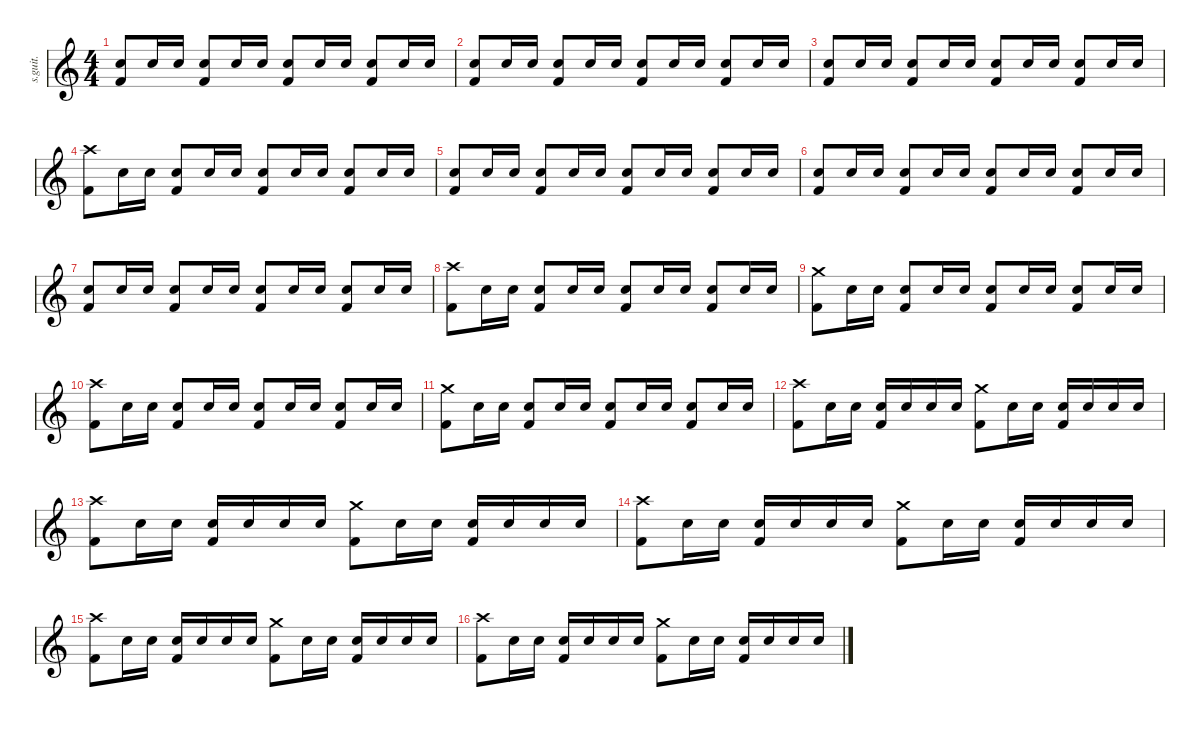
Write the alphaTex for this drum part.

\defaultSystemsLayout 4
\hideDynamics
\bracketExtendMode nobrackets
\track ("Bob Burns (Drums)" "s.guit.") {instrument percussion}
\staff {score}
\articulation defaults
\ts (4 4)
\tempo (150 hide)
\clef g2
\ks c
("Electric Snare (hit)" "Kick (hit) 2").8{lyrics (0 "") lyrics (1 "") lyrics (2 "") lyrics (3 "") lyrics (4 "") dy f} "Electric Snare (hit)".16{lyrics (0 "") lyrics (1 "") lyrics (2 "") lyrics (3 "") lyrics (4 "")} "Electric Snare (hit)".16{lyrics (0 "") lyrics (1 "") lyrics (2 "") lyrics (3 "") lyrics (4 "")} ("Electric Snare (hit)" "Kick (hit) 2").8{lyrics (0 "") lyrics (1 "") lyrics (2 "") lyrics (3 "") lyrics (4 "")} "Electric Snare (hit)".16{lyrics (0 "") lyrics (1 "") lyrics (2 "") lyrics (3 "") lyrics (4 "")} "Electric Snare (hit)".16{lyrics (0 "") lyrics (1 "") lyrics (2 "") lyrics (3 "") lyrics (4 "")} ("Electric Snare (hit)" "Kick (hit) 2").8{lyrics (0 "") lyrics (1 "") lyrics (2 "") lyrics (3 "") lyrics (4 "")} "Electric Snare (hit)".16{lyrics (0 "") lyrics (1 "") lyrics (2 "") lyrics (3 "") lyrics (4 "")} "Electric Snare (hit)".16{lyrics (0 "") lyrics (1 "") lyrics (2 "") lyrics (3 "") lyrics (4 "")} ("Electric Snare (hit)" "Kick (hit) 2").8{lyrics (0 "") lyrics (1 "") lyrics (2 "") lyrics (3 "") lyrics (4 "")} "Electric Snare (hit)".16{lyrics (0 "") lyrics (1 "") lyrics (2 "") lyrics (3 "") lyrics (4 "")} "Electric Snare (hit)".16{lyrics (0 "") lyrics (1 "") lyrics (2 "") lyrics (3 "") lyrics (4 "")} |
("Electric Snare (hit)" "Kick (hit) 2").8{lyrics (0 "") lyrics (1 "") lyrics (2 "") lyrics (3 "") lyrics (4 "")} "Electric Snare (hit)".16{lyrics (0 "") lyrics (1 "") lyrics (2 "") lyrics (3 "") lyrics (4 "")} "Electric Snare (hit)".16{lyrics (0 "") lyrics (1 "") lyrics (2 "") lyrics (3 "") lyrics (4 "")} ("Electric Snare (hit)" "Kick (hit) 2").8{lyrics (0 "") lyrics (1 "") lyrics (2 "") lyrics (3 "") lyrics (4 "")} "Electric Snare (hit)".16{lyrics (0 "") lyrics (1 "") lyrics (2 "") lyrics (3 "") lyrics (4 "")} "Electric Snare (hit)".16{lyrics (0 "") lyrics (1 "") lyrics (2 "") lyrics (3 "") lyrics (4 "")} ("Electric Snare (hit)" "Kick (hit) 2").8{lyrics (0 "") lyrics (1 "") lyrics (2 "") lyrics (3 "") lyrics (4 "")} "Electric Snare (hit)".16{lyrics (0 "") lyrics (1 "") lyrics (2 "") lyrics (3 "") lyrics (4 "")} "Electric Snare (hit)".16{lyrics (0 "") lyrics (1 "") lyrics (2 "") lyrics (3 "") lyrics (4 "")} ("Electric Snare (hit)" "Kick (hit) 2").8{lyrics (0 "") lyrics (1 "") lyrics (2 "") lyrics (3 "") lyrics (4 "")} "Electric Snare (hit)".16{lyrics (0 "") lyrics (1 "") lyrics (2 "") lyrics (3 "") lyrics (4 "")} "Electric Snare (hit)".16{lyrics (0 "") lyrics (1 "") lyrics (2 "") lyrics (3 "") lyrics (4 "")} |
("Electric Snare (hit)" "Kick (hit) 2").8{lyrics (0 "") lyrics (1 "") lyrics (2 "") lyrics (3 "") lyrics (4 "")} "Electric Snare (hit)".16{lyrics (0 "") lyrics (1 "") lyrics (2 "") lyrics (3 "") lyrics (4 "")} "Electric Snare (hit)".16{lyrics (0 "") lyrics (1 "") lyrics (2 "") lyrics (3 "") lyrics (4 "")} ("Electric Snare (hit)" "Kick (hit) 2").8{lyrics (0 "") lyrics (1 "") lyrics (2 "") lyrics (3 "") lyrics (4 "")} "Electric Snare (hit)".16{lyrics (0 "") lyrics (1 "") lyrics (2 "") lyrics (3 "") lyrics (4 "")} "Electric Snare (hit)".16{lyrics (0 "") lyrics (1 "") lyrics (2 "") lyrics (3 "") lyrics (4 "")} ("Electric Snare (hit)" "Kick (hit) 2").8{lyrics (0 "") lyrics (1 "") lyrics (2 "") lyrics (3 "") lyrics (4 "")} "Electric Snare (hit)".16{lyrics (0 "") lyrics (1 "") lyrics (2 "") lyrics (3 "") lyrics (4 "")} "Electric Snare (hit)".16{lyrics (0 "") lyrics (1 "") lyrics (2 "") lyrics (3 "") lyrics (4 "")} ("Electric Snare (hit)" "Kick (hit) 2").8{lyrics (0 "") lyrics (1 "") lyrics (2 "") lyrics (3 "") lyrics (4 "")} "Electric Snare (hit)".16{lyrics (0 "") lyrics (1 "") lyrics (2 "") lyrics (3 "") lyrics (4 "")} "Electric Snare (hit)".16{lyrics (0 "") lyrics (1 "") lyrics (2 "") lyrics (3 "") lyrics (4 "")} |
("Crash high (hit)" "Kick (hit) 2").8{lyrics (0 "") lyrics (1 "") lyrics (2 "") lyrics (3 "") lyrics (4 "")} "Electric Snare (hit)".16{lyrics (0 "") lyrics (1 "") lyrics (2 "") lyrics (3 "") lyrics (4 "")} "Electric Snare (hit)".16{lyrics (0 "") lyrics (1 "") lyrics (2 "") lyrics (3 "") lyrics (4 "")} ("Electric Snare (hit)" "Kick (hit) 2").8{lyrics (0 "") lyrics (1 "") lyrics (2 "") lyrics (3 "") lyrics (4 "")} "Electric Snare (hit)".16{lyrics (0 "") lyrics (1 "") lyrics (2 "") lyrics (3 "") lyrics (4 "")} "Electric Snare (hit)".16{lyrics (0 "") lyrics (1 "") lyrics (2 "") lyrics (3 "") lyrics (4 "")} ("Electric Snare (hit)" "Kick (hit) 2").8{lyrics (0 "") lyrics (1 "") lyrics (2 "") lyrics (3 "") lyrics (4 "")} "Electric Snare (hit)".16{lyrics (0 "") lyrics (1 "") lyrics (2 "") lyrics (3 "") lyrics (4 "")} "Electric Snare (hit)".16{lyrics (0 "") lyrics (1 "") lyrics (2 "") lyrics (3 "") lyrics (4 "")} ("Electric Snare (hit)" "Kick (hit) 2").8{lyrics (0 "") lyrics (1 "") lyrics (2 "") lyrics (3 "") lyrics (4 "")} "Electric Snare (hit)".16{lyrics (0 "") lyrics (1 "") lyrics (2 "") lyrics (3 "") lyrics (4 "")} "Electric Snare (hit)".16{lyrics (0 "") lyrics (1 "") lyrics (2 "") lyrics (3 "") lyrics (4 "")} |
("Electric Snare (hit)" "Kick (hit) 2").8{lyrics (0 "") lyrics (1 "") lyrics (2 "") lyrics (3 "") lyrics (4 "")} "Electric Snare (hit)".16{lyrics (0 "") lyrics (1 "") lyrics (2 "") lyrics (3 "") lyrics (4 "")} "Electric Snare (hit)".16{lyrics (0 "") lyrics (1 "") lyrics (2 "") lyrics (3 "") lyrics (4 "")} ("Electric Snare (hit)" "Kick (hit) 2").8{lyrics (0 "") lyrics (1 "") lyrics (2 "") lyrics (3 "") lyrics (4 "")} "Electric Snare (hit)".16{lyrics (0 "") lyrics (1 "") lyrics (2 "") lyrics (3 "") lyrics (4 "")} "Electric Snare (hit)".16{lyrics (0 "") lyrics (1 "") lyrics (2 "") lyrics (3 "") lyrics (4 "")} ("Electric Snare (hit)" "Kick (hit) 2").8{lyrics (0 "") lyrics (1 "") lyrics (2 "") lyrics (3 "") lyrics (4 "")} "Electric Snare (hit)".16{lyrics (0 "") lyrics (1 "") lyrics (2 "") lyrics (3 "") lyrics (4 "")} "Electric Snare (hit)".16{lyrics (0 "") lyrics (1 "") lyrics (2 "") lyrics (3 "") lyrics (4 "")} ("Electric Snare (hit)" "Kick (hit) 2").8{lyrics (0 "") lyrics (1 "") lyrics (2 "") lyrics (3 "") lyrics (4 "")} "Electric Snare (hit)".16{lyrics (0 "") lyrics (1 "") lyrics (2 "") lyrics (3 "") lyrics (4 "")} "Electric Snare (hit)".16{lyrics (0 "") lyrics (1 "") lyrics (2 "") lyrics (3 "") lyrics (4 "")} |
("Electric Snare (hit)" "Kick (hit) 2").8{lyrics (0 "") lyrics (1 "") lyrics (2 "") lyrics (3 "") lyrics (4 "")} "Electric Snare (hit)".16{lyrics (0 "") lyrics (1 "") lyrics (2 "") lyrics (3 "") lyrics (4 "")} "Electric Snare (hit)".16{lyrics (0 "") lyrics (1 "") lyrics (2 "") lyrics (3 "") lyrics (4 "")} ("Electric Snare (hit)" "Kick (hit) 2").8{lyrics (0 "") lyrics (1 "") lyrics (2 "") lyrics (3 "") lyrics (4 "")} "Electric Snare (hit)".16{lyrics (0 "") lyrics (1 "") lyrics (2 "") lyrics (3 "") lyrics (4 "")} "Electric Snare (hit)".16{lyrics (0 "") lyrics (1 "") lyrics (2 "") lyrics (3 "") lyrics (4 "")} ("Electric Snare (hit)" "Kick (hit) 2").8{lyrics (0 "") lyrics (1 "") lyrics (2 "") lyrics (3 "") lyrics (4 "")} "Electric Snare (hit)".16{lyrics (0 "") lyrics (1 "") lyrics (2 "") lyrics (3 "") lyrics (4 "")} "Electric Snare (hit)".16{lyrics (0 "") lyrics (1 "") lyrics (2 "") lyrics (3 "") lyrics (4 "")} ("Electric Snare (hit)" "Kick (hit) 2").8{lyrics (0 "") lyrics (1 "") lyrics (2 "") lyrics (3 "") lyrics (4 "")} "Electric Snare (hit)".16{lyrics (0 "") lyrics (1 "") lyrics (2 "") lyrics (3 "") lyrics (4 "")} "Electric Snare (hit)".16{lyrics (0 "") lyrics (1 "") lyrics (2 "") lyrics (3 "") lyrics (4 "")} |
("Electric Snare (hit)" "Kick (hit) 2").8{lyrics (0 "") lyrics (1 "") lyrics (2 "") lyrics (3 "") lyrics (4 "")} "Electric Snare (hit)".16{lyrics (0 "") lyrics (1 "") lyrics (2 "") lyrics (3 "") lyrics (4 "")} "Electric Snare (hit)".16{lyrics (0 "") lyrics (1 "") lyrics (2 "") lyrics (3 "") lyrics (4 "")} ("Electric Snare (hit)" "Kick (hit) 2").8{lyrics (0 "") lyrics (1 "") lyrics (2 "") lyrics (3 "") lyrics (4 "")} "Electric Snare (hit)".16{lyrics (0 "") lyrics (1 "") lyrics (2 "") lyrics (3 "") lyrics (4 "")} "Electric Snare (hit)".16{lyrics (0 "") lyrics (1 "") lyrics (2 "") lyrics (3 "") lyrics (4 "")} ("Electric Snare (hit)" "Kick (hit) 2").8{lyrics (0 "") lyrics (1 "") lyrics (2 "") lyrics (3 "") lyrics (4 "")} "Electric Snare (hit)".16{lyrics (0 "") lyrics (1 "") lyrics (2 "") lyrics (3 "") lyrics (4 "")} "Electric Snare (hit)".16{lyrics (0 "") lyrics (1 "") lyrics (2 "") lyrics (3 "") lyrics (4 "")} ("Electric Snare (hit)" "Kick (hit) 2").8{lyrics (0 "") lyrics (1 "") lyrics (2 "") lyrics (3 "") lyrics (4 "")} "Electric Snare (hit)".16{lyrics (0 "") lyrics (1 "") lyrics (2 "") lyrics (3 "") lyrics (4 "")} "Electric Snare (hit)".16{lyrics (0 "") lyrics (1 "") lyrics (2 "") lyrics (3 "") lyrics (4 "")} |
("Crash high (hit)" "Kick (hit) 2").8{lyrics (0 "") lyrics (1 "") lyrics (2 "") lyrics (3 "") lyrics (4 "")} "Electric Snare (hit)".16{lyrics (0 "") lyrics (1 "") lyrics (2 "") lyrics (3 "") lyrics (4 "")} "Electric Snare (hit)".16{lyrics (0 "") lyrics (1 "") lyrics (2 "") lyrics (3 "") lyrics (4 "")} ("Electric Snare (hit)" "Kick (hit) 2").8{lyrics (0 "") lyrics (1 "") lyrics (2 "") lyrics (3 "") lyrics (4 "")} "Electric Snare (hit)".16{lyrics (0 "") lyrics (1 "") lyrics (2 "") lyrics (3 "") lyrics (4 "")} "Electric Snare (hit)".16{lyrics (0 "") lyrics (1 "") lyrics (2 "") lyrics (3 "") lyrics (4 "")} ("Electric Snare (hit)" "Kick (hit) 2").8{lyrics (0 "") lyrics (1 "") lyrics (2 "") lyrics (3 "") lyrics (4 "")} "Electric Snare (hit)".16{lyrics (0 "") lyrics (1 "") lyrics (2 "") lyrics (3 "") lyrics (4 "")} "Electric Snare (hit)".16{lyrics (0 "") lyrics (1 "") lyrics (2 "") lyrics (3 "") lyrics (4 "")} ("Electric Snare (hit)" "Kick (hit) 2").8{lyrics (0 "") lyrics (1 "") lyrics (2 "") lyrics (3 "") lyrics (4 "")} "Electric Snare (hit)".16{lyrics (0 "") lyrics (1 "") lyrics (2 "") lyrics (3 "") lyrics (4 "")} "Electric Snare (hit)".16{lyrics (0 "") lyrics (1 "") lyrics (2 "") lyrics (3 "") lyrics (4 "")} |
("Crash medium (hit)" "Kick (hit) 2").8{lyrics (0 "") lyrics (1 "") lyrics (2 "") lyrics (3 "") lyrics (4 "")} "Electric Snare (hit)".16{lyrics (0 "") lyrics (1 "") lyrics (2 "") lyrics (3 "") lyrics (4 "")} "Electric Snare (hit)".16{lyrics (0 "") lyrics (1 "") lyrics (2 "") lyrics (3 "") lyrics (4 "")} ("Electric Snare (hit)" "Kick (hit) 2").8{lyrics (0 "") lyrics (1 "") lyrics (2 "") lyrics (3 "") lyrics (4 "")} "Electric Snare (hit)".16{lyrics (0 "") lyrics (1 "") lyrics (2 "") lyrics (3 "") lyrics (4 "")} "Electric Snare (hit)".16{lyrics (0 "") lyrics (1 "") lyrics (2 "") lyrics (3 "") lyrics (4 "")} ("Electric Snare (hit)" "Kick (hit) 2").8{lyrics (0 "") lyrics (1 "") lyrics (2 "") lyrics (3 "") lyrics (4 "")} "Electric Snare (hit)".16{lyrics (0 "") lyrics (1 "") lyrics (2 "") lyrics (3 "") lyrics (4 "")} "Electric Snare (hit)".16{lyrics (0 "") lyrics (1 "") lyrics (2 "") lyrics (3 "") lyrics (4 "")} ("Electric Snare (hit)" "Kick (hit) 2").8{lyrics (0 "") lyrics (1 "") lyrics (2 "") lyrics (3 "") lyrics (4 "")} "Electric Snare (hit)".16{lyrics (0 "") lyrics (1 "") lyrics (2 "") lyrics (3 "") lyrics (4 "")} "Electric Snare (hit)".16{lyrics (0 "") lyrics (1 "") lyrics (2 "") lyrics (3 "") lyrics (4 "")} |
("Crash high (hit)" "Kick (hit) 2").8{lyrics (0 "") lyrics (1 "") lyrics (2 "") lyrics (3 "") lyrics (4 "")} "Electric Snare (hit)".16{lyrics (0 "") lyrics (1 "") lyrics (2 "") lyrics (3 "") lyrics (4 "")} "Electric Snare (hit)".16{lyrics (0 "") lyrics (1 "") lyrics (2 "") lyrics (3 "") lyrics (4 "")} ("Electric Snare (hit)" "Kick (hit) 2").8{lyrics (0 "") lyrics (1 "") lyrics (2 "") lyrics (3 "") lyrics (4 "")} "Electric Snare (hit)".16{lyrics (0 "") lyrics (1 "") lyrics (2 "") lyrics (3 "") lyrics (4 "")} "Electric Snare (hit)".16{lyrics (0 "") lyrics (1 "") lyrics (2 "") lyrics (3 "") lyrics (4 "")} ("Electric Snare (hit)" "Kick (hit) 2").8{lyrics (0 "") lyrics (1 "") lyrics (2 "") lyrics (3 "") lyrics (4 "")} "Electric Snare (hit)".16{lyrics (0 "") lyrics (1 "") lyrics (2 "") lyrics (3 "") lyrics (4 "")} "Electric Snare (hit)".16{lyrics (0 "") lyrics (1 "") lyrics (2 "") lyrics (3 "") lyrics (4 "")} ("Electric Snare (hit)" "Kick (hit) 2").8{lyrics (0 "") lyrics (1 "") lyrics (2 "") lyrics (3 "") lyrics (4 "")} "Electric Snare (hit)".16{lyrics (0 "") lyrics (1 "") lyrics (2 "") lyrics (3 "") lyrics (4 "")} "Electric Snare (hit)".16{lyrics (0 "") lyrics (1 "") lyrics (2 "") lyrics (3 "") lyrics (4 "")} |
("Crash medium (hit)" "Kick (hit) 2").8{lyrics (0 "") lyrics (1 "") lyrics (2 "") lyrics (3 "") lyrics (4 "")} "Electric Snare (hit)".16{lyrics (0 "") lyrics (1 "") lyrics (2 "") lyrics (3 "") lyrics (4 "")} "Electric Snare (hit)".16{lyrics (0 "") lyrics (1 "") lyrics (2 "") lyrics (3 "") lyrics (4 "")} ("Electric Snare (hit)" "Kick (hit) 2").8{lyrics (0 "") lyrics (1 "") lyrics (2 "") lyrics (3 "") lyrics (4 "")} "Electric Snare (hit)".16{lyrics (0 "") lyrics (1 "") lyrics (2 "") lyrics (3 "") lyrics (4 "")} "Electric Snare (hit)".16{lyrics (0 "") lyrics (1 "") lyrics (2 "") lyrics (3 "") lyrics (4 "")} ("Electric Snare (hit)" "Kick (hit) 2").8{lyrics (0 "") lyrics (1 "") lyrics (2 "") lyrics (3 "") lyrics (4 "")} "Electric Snare (hit)".16{lyrics (0 "") lyrics (1 "") lyrics (2 "") lyrics (3 "") lyrics (4 "")} "Electric Snare (hit)".16{lyrics (0 "") lyrics (1 "") lyrics (2 "") lyrics (3 "") lyrics (4 "")} ("Electric Snare (hit)" "Kick (hit) 2").8{lyrics (0 "") lyrics (1 "") lyrics (2 "") lyrics (3 "") lyrics (4 "")} "Electric Snare (hit)".16{lyrics (0 "") lyrics (1 "") lyrics (2 "") lyrics (3 "") lyrics (4 "")} "Electric Snare (hit)".16{lyrics (0 "") lyrics (1 "") lyrics (2 "") lyrics (3 "") lyrics (4 "")} |
("Crash high (hit)" "Kick (hit) 2").8{lyrics (0 "") lyrics (1 "") lyrics (2 "") lyrics (3 "") lyrics (4 "")} "Electric Snare (hit)".16{lyrics (0 "") lyrics (1 "") lyrics (2 "") lyrics (3 "") lyrics (4 "")} "Electric Snare (hit)".16{lyrics (0 "") lyrics (1 "") lyrics (2 "") lyrics (3 "") lyrics (4 "")} ("Electric Snare (hit)" "Kick (hit) 2").16{lyrics (0 "") lyrics (1 "") lyrics (2 "") lyrics (3 "") lyrics (4 "")} "Electric Snare (hit)".16{lyrics (0 "") lyrics (1 "") lyrics (2 "") lyrics (3 "") lyrics (4 "")} "Electric Snare (hit)".16{lyrics (0 "") lyrics (1 "") lyrics (2 "") lyrics (3 "") lyrics (4 "")} "Electric Snare (hit)".16{lyrics (0 "") lyrics (1 "") lyrics (2 "") lyrics (3 "") lyrics (4 "")} ("Crash medium (hit)" "Kick (hit) 2").8{lyrics (0 "") lyrics (1 "") lyrics (2 "") lyrics (3 "") lyrics (4 "")} "Electric Snare (hit)".16{lyrics (0 "") lyrics (1 "") lyrics (2 "") lyrics (3 "") lyrics (4 "")} "Electric Snare (hit)".16{lyrics (0 "") lyrics (1 "") lyrics (2 "") lyrics (3 "") lyrics (4 "")} ("Electric Snare (hit)" "Kick (hit) 2").16{lyrics (0 "") lyrics (1 "") lyrics (2 "") lyrics (3 "") lyrics (4 "")} "Electric Snare (hit)".16{lyrics (0 "") lyrics (1 "") lyrics (2 "") lyrics (3 "") lyrics (4 "")} "Electric Snare (hit)".16{lyrics (0 "") lyrics (1 "") lyrics (2 "") lyrics (3 "") lyrics (4 "")} "Electric Snare (hit)".16{lyrics (0 "") lyrics (1 "") lyrics (2 "") lyrics (3 "") lyrics (4 "")} |
("Crash high (hit)" "Kick (hit) 2").8{lyrics (0 "") lyrics (1 "") lyrics (2 "") lyrics (3 "") lyrics (4 "")} "Electric Snare (hit)".16{lyrics (0 "") lyrics (1 "") lyrics (2 "") lyrics (3 "") lyrics (4 "")} "Electric Snare (hit)".16{lyrics (0 "") lyrics (1 "") lyrics (2 "") lyrics (3 "") lyrics (4 "")} ("Electric Snare (hit)" "Kick (hit) 2").16{lyrics (0 "") lyrics (1 "") lyrics (2 "") lyrics (3 "") lyrics (4 "")} "Electric Snare (hit)".16{lyrics (0 "") lyrics (1 "") lyrics (2 "") lyrics (3 "") lyrics (4 "")} "Electric Snare (hit)".16{lyrics (0 "") lyrics (1 "") lyrics (2 "") lyrics (3 "") lyrics (4 "")} "Electric Snare (hit)".16{lyrics (0 "") lyrics (1 "") lyrics (2 "") lyrics (3 "") lyrics (4 "")} ("Crash medium (hit)" "Kick (hit) 2").8{lyrics (0 "") lyrics (1 "") lyrics (2 "") lyrics (3 "") lyrics (4 "")} "Electric Snare (hit)".16{lyrics (0 "") lyrics (1 "") lyrics (2 "") lyrics (3 "") lyrics (4 "")} "Electric Snare (hit)".16{lyrics (0 "") lyrics (1 "") lyrics (2 "") lyrics (3 "") lyrics (4 "")} ("Electric Snare (hit)" "Kick (hit) 2").16{lyrics (0 "") lyrics (1 "") lyrics (2 "") lyrics (3 "") lyrics (4 "")} "Electric Snare (hit)".16{lyrics (0 "") lyrics (1 "") lyrics (2 "") lyrics (3 "") lyrics (4 "")} "Electric Snare (hit)".16{lyrics (0 "") lyrics (1 "") lyrics (2 "") lyrics (3 "") lyrics (4 "")} "Electric Snare (hit)".16{lyrics (0 "") lyrics (1 "") lyrics (2 "") lyrics (3 "") lyrics (4 "")} |
("Crash high (hit)" "Kick (hit) 2").8{lyrics (0 "") lyrics (1 "") lyrics (2 "") lyrics (3 "") lyrics (4 "")} "Electric Snare (hit)".16{lyrics (0 "") lyrics (1 "") lyrics (2 "") lyrics (3 "") lyrics (4 "")} "Electric Snare (hit)".16{lyrics (0 "") lyrics (1 "") lyrics (2 "") lyrics (3 "") lyrics (4 "")} ("Electric Snare (hit)" "Kick (hit) 2").16{lyrics (0 "") lyrics (1 "") lyrics (2 "") lyrics (3 "") lyrics (4 "")} "Electric Snare (hit)".16{lyrics (0 "") lyrics (1 "") lyrics (2 "") lyrics (3 "") lyrics (4 "")} "Electric Snare (hit)".16{lyrics (0 "") lyrics (1 "") lyrics (2 "") lyrics (3 "") lyrics (4 "")} "Electric Snare (hit)".16{lyrics (0 "") lyrics (1 "") lyrics (2 "") lyrics (3 "") lyrics (4 "")} ("Crash medium (hit)" "Kick (hit) 2").8{lyrics (0 "") lyrics (1 "") lyrics (2 "") lyrics (3 "") lyrics (4 "")} "Electric Snare (hit)".16{lyrics (0 "") lyrics (1 "") lyrics (2 "") lyrics (3 "") lyrics (4 "")} "Electric Snare (hit)".16{lyrics (0 "") lyrics (1 "") lyrics (2 "") lyrics (3 "") lyrics (4 "")} ("Electric Snare (hit)" "Kick (hit) 2").16{lyrics (0 "") lyrics (1 "") lyrics (2 "") lyrics (3 "") lyrics (4 "")} "Electric Snare (hit)".16{lyrics (0 "") lyrics (1 "") lyrics (2 "") lyrics (3 "") lyrics (4 "")} "Electric Snare (hit)".16{lyrics (0 "") lyrics (1 "") lyrics (2 "") lyrics (3 "") lyrics (4 "")} "Electric Snare (hit)".16{lyrics (0 "") lyrics (1 "") lyrics (2 "") lyrics (3 "") lyrics (4 "")} |
("Crash high (hit)" "Kick (hit) 2").8{lyrics (0 "") lyrics (1 "") lyrics (2 "") lyrics (3 "") lyrics (4 "")} "Electric Snare (hit)".16{lyrics (0 "") lyrics (1 "") lyrics (2 "") lyrics (3 "") lyrics (4 "")} "Electric Snare (hit)".16{lyrics (0 "") lyrics (1 "") lyrics (2 "") lyrics (3 "") lyrics (4 "")} ("Electric Snare (hit)" "Kick (hit) 2").16{lyrics (0 "") lyrics (1 "") lyrics (2 "") lyrics (3 "") lyrics (4 "")} "Electric Snare (hit)".16{lyrics (0 "") lyrics (1 "") lyrics (2 "") lyrics (3 "") lyrics (4 "")} "Electric Snare (hit)".16{lyrics (0 "") lyrics (1 "") lyrics (2 "") lyrics (3 "") lyrics (4 "")} "Electric Snare (hit)".16{lyrics (0 "") lyrics (1 "") lyrics (2 "") lyrics (3 "") lyrics (4 "")} ("Crash medium (hit)" "Kick (hit) 2").8{lyrics (0 "") lyrics (1 "") lyrics (2 "") lyrics (3 "") lyrics (4 "")} "Electric Snare (hit)".16{lyrics (0 "") lyrics (1 "") lyrics (2 "") lyrics (3 "") lyrics (4 "")} "Electric Snare (hit)".16{lyrics (0 "") lyrics (1 "") lyrics (2 "") lyrics (3 "") lyrics (4 "")} ("Electric Snare (hit)" "Kick (hit) 2").16{lyrics (0 "") lyrics (1 "") lyrics (2 "") lyrics (3 "") lyrics (4 "")} "Electric Snare (hit)".16{lyrics (0 "") lyrics (1 "") lyrics (2 "") lyrics (3 "") lyrics (4 "")} "Electric Snare (hit)".16{lyrics (0 "") lyrics (1 "") lyrics (2 "") lyrics (3 "") lyrics (4 "")} "Electric Snare (hit)".16{lyrics (0 "") lyrics (1 "") lyrics (2 "") lyrics (3 "") lyrics (4 "")} |
("Crash high (hit)" "Kick (hit) 2").8{lyrics (0 "") lyrics (1 "") lyrics (2 "") lyrics (3 "") lyrics (4 "")} "Electric Snare (hit)".16{lyrics (0 "") lyrics (1 "") lyrics (2 "") lyrics (3 "") lyrics (4 "")} "Electric Snare (hit)".16{lyrics (0 "") lyrics (1 "") lyrics (2 "") lyrics (3 "") lyrics (4 "")} ("Electric Snare (hit)" "Kick (hit) 2").16{lyrics (0 "") lyrics (1 "") lyrics (2 "") lyrics (3 "") lyrics (4 "")} "Electric Snare (hit)".16{lyrics (0 "") lyrics (1 "") lyrics (2 "") lyrics (3 "") lyrics (4 "")} "Electric Snare (hit)".16{lyrics (0 "") lyrics (1 "") lyrics (2 "") lyrics (3 "") lyrics (4 "")} "Electric Snare (hit)".16{lyrics (0 "") lyrics (1 "") lyrics (2 "") lyrics (3 "") lyrics (4 "")} ("Crash medium (hit)" "Kick (hit) 2").8{lyrics (0 "") lyrics (1 "") lyrics (2 "") lyrics (3 "") lyrics (4 "")} "Electric Snare (hit)".16{lyrics (0 "") lyrics (1 "") lyrics (2 "") lyrics (3 "") lyrics (4 "")} "Electric Snare (hit)".16{lyrics (0 "") lyrics (1 "") lyrics (2 "") lyrics (3 "") lyrics (4 "")} ("Electric Snare (hit)" "Kick (hit) 2").16{lyrics (0 "") lyrics (1 "") lyrics (2 "") lyrics (3 "") lyrics (4 "")} "Electric Snare (hit)".16{lyrics (0 "") lyrics (1 "") lyrics (2 "") lyrics (3 "") lyrics (4 "")} "Electric Snare (hit)".16{lyrics (0 "") lyrics (1 "") lyrics (2 "") lyrics (3 "") lyrics (4 "")} "Electric Snare (hit)".16{lyrics (0 "") lyrics (1 "") lyrics (2 "") lyrics (3 "") lyrics (4 "")}
